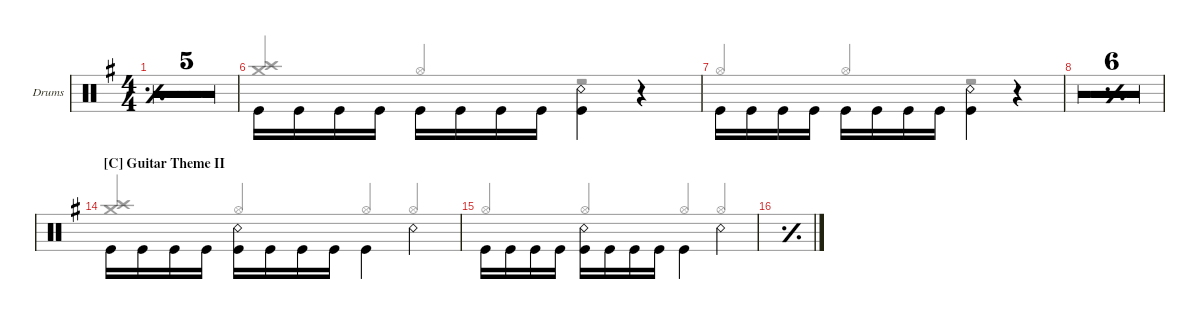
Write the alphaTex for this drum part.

\defaultSystemsLayout 4
\hideDynamics
\bracketExtendMode groupsimilarinstruments
\firstSystemTrackNameOrientation horizontal
\otherSystemsTrackNameOrientation horizontal
\track ("Drumkit" "Drums") {multiBarRest instrument percussion}
\staff {score}
\articulation defaults
\voice
\ts (4 4)
\tempo 164
\clef neutral
\simile simple
\scale
0.0357536
\ks eminor
|
\scale
0.0357536 |
\scale
0.0357536 |
\scale
0.0357536 |
\scale
0.0357536 |
\simile none
\scale
0.431239 "Kick (hit)".16{beam invert} "Kick (hit)".16 "Kick (hit)".16 "Kick (hit)".16 "Kick (hit)".16{beam invert} "Kick (hit)".16 "Kick (hit)".16 "Kick (hit)".16 ("Kick (hit)" "Snare (rim shot)").4{beam invert} r.4{beam invert} |
\scale
0.368258 "Kick (hit)".16{beam invert} "Kick (hit)".16 "Kick (hit)".16 "Kick (hit)".16 "Kick (hit)".16{beam invert} "Kick (hit)".16 "Kick (hit)".16 "Kick (hit)".16 ("Kick (hit)" "Snare (rim shot)").4{beam invert} r.4 |
\simile simple
\scale
0.0334235 |
\scale
0.0334235 |
\scale
0.0334235 |
\scale
0.0334235 |
\scale
0.0334235 |
\scale
0.0334235 |
\section ("C" "Guitar Theme II")
\simile none
\scale
0.425512 "Kick (hit)".16{beam invert} "Kick (hit)".16 "Kick (hit)".16 "Kick (hit)".16 ("Kick (hit)" "Snare (rim shot)").16{beam invert} "Kick (hit)".16 "Kick (hit)".16 "Kick (hit)".16 "Kick (hit)".4{beam invert} "Snare (rim shot)".4{beam invert} |
\scale
0.374037 "Kick (hit)".16{beam invert} "Kick (hit)".16 "Kick (hit)".16 "Kick (hit)".16 ("Kick (hit)" "Snare (rim shot)").16{beam invert} "Kick (hit)".16 "Kick (hit)".16 "Kick (hit)".16 "Kick (hit)".4{beam invert} "Snare (rim shot)".4{beam invert} |
\simile simple
\scale
0.0334113
\voice
\clef neutral
\ottava regular
\simile simple
\scale
0.0357536
\ks eminor
|
\scale
0.0357536 |
\scale
0.0357536 |
\scale
0.0357536 |
\scale
0.0357536 |
\simile none
\scale
0.431239 ("Crash high (hit)" "Crash medium (hit)").4{beam invert} "Hi-Hat (open)".4{beam invert} r.2 |
\scale
0.368258 "Hi-Hat (open)".4{beam invert} "Hi-Hat (open)".4{beam invert} r.2 |
\simile simple
\scale
0.0334235 |
\scale
0.0334235 |
\scale
0.0334235 |
\scale
0.0334235 |
\scale
0.0334235 |
\scale
0.0334235 |
\simile none
\scale
0.425512 ("Crash high (hit)" "Crash medium (hit)").4{beam invert} "Hi-Hat (open)".4{beam invert} "Hi-Hat (open)".4{beam invert} "Hi-Hat (open)".4{beam invert} |
\scale
0.374037 "Hi-Hat (open)".4{beam invert} "Hi-Hat (open)".4{beam invert} "Hi-Hat (open)".4{beam invert} "Hi-Hat (open)".4{beam invert} |
\simile simple
\scale
0.0334113
